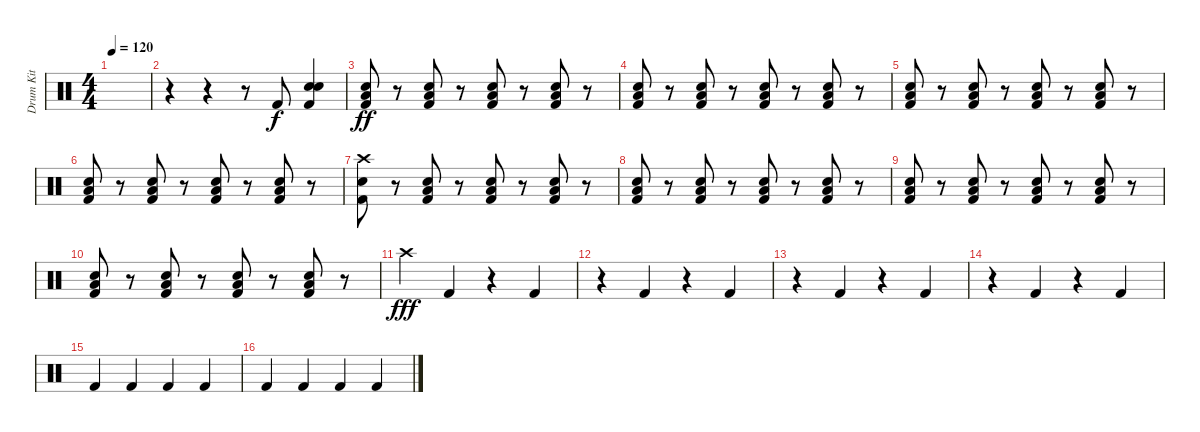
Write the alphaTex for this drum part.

\track ("Drum Kit" "Drum Kit") {instrument percussion}
\staff {score}
\articulation defaults
\ts (4 4)
\tempo 120
\clef neutral
\ks c
|
r.4 r.4 r.8 "Kick (hit) 2".8 ("Electric Snare (hit)" "Snare (hit) 2" "Kick (hit) 2").4 |
("Low Floor Tom (hit)" "Snare (hit) 2" "Kick (hit) 2").8{dy ff} r.8 ("Low Floor Tom (hit)" "Snare (hit) 2" "Kick (hit) 2").8 r.8 ("Low Floor Tom (hit)" "Snare (hit) 2" "Kick (hit) 2").8 r.8 ("Low Floor Tom (hit)" "Snare (hit) 2" "Kick (hit) 2").8 r.8 |
("Low Floor Tom (hit)" "Snare (hit) 2" "Kick (hit) 2").8 r.8 ("Low Floor Tom (hit)" "Snare (hit) 2" "Kick (hit) 2").8 r.8 ("Low Floor Tom (hit)" "Snare (hit) 2" "Kick (hit) 2").8 r.8 ("Low Floor Tom (hit)" "Snare (hit) 2" "Kick (hit) 2").8 r.8 |
("Low Floor Tom (hit)" "Snare (hit) 2" "Kick (hit) 2").8 r.8 ("Low Floor Tom (hit)" "Snare (hit) 2" "Kick (hit) 2").8 r.8 ("Low Floor Tom (hit)" "Snare (hit) 2" "Kick (hit) 2").8 r.8 ("Low Floor Tom (hit)" "Snare (hit) 2" "Kick (hit) 2").8 r.8 |
("Low Floor Tom (hit)" "Snare (hit) 2" "Kick (hit) 2").8 r.8 ("Low Floor Tom (hit)" "Snare (hit) 2" "Kick (hit) 2").8 r.8 ("Low Floor Tom (hit)" "Snare (hit) 2" "Kick (hit) 2").8 r.8 ("Low Floor Tom (hit)" "Snare (hit) 2" "Kick (hit) 2").8 r.8 |
("Crash high (hit)" "Snare (hit) 2" "Kick (hit) 2").8 r.8 ("Low Floor Tom (hit)" "Snare (hit) 2" "Kick (hit) 2").8 r.8 ("Low Floor Tom (hit)" "Snare (hit) 2" "Kick (hit) 2").8 r.8 ("Low Floor Tom (hit)" "Snare (hit) 2" "Kick (hit) 2").8 r.8 |
("Low Floor Tom (hit)" "Snare (hit) 2" "Kick (hit) 2").8 r.8 ("Low Floor Tom (hit)" "Snare (hit) 2" "Kick (hit) 2").8 r.8 ("Low Floor Tom (hit)" "Snare (hit) 2" "Kick (hit) 2").8 r.8 ("Low Floor Tom (hit)" "Snare (hit) 2" "Kick (hit) 2").8 r.8 |
("Low Floor Tom (hit)" "Snare (hit) 2" "Kick (hit) 2").8 r.8 ("Low Floor Tom (hit)" "Snare (hit) 2" "Kick (hit) 2").8 r.8 ("Low Floor Tom (hit)" "Snare (hit) 2" "Kick (hit) 2").8 r.8 ("Low Floor Tom (hit)" "Snare (hit) 2" "Kick (hit) 2").8 r.8 |
("Low Floor Tom (hit)" "Snare (hit) 2" "Kick (hit) 2").8 r.8 ("Low Floor Tom (hit)" "Snare (hit) 2" "Kick (hit) 2").8 r.8 ("Low Floor Tom (hit)" "Snare (hit) 2" "Kick (hit) 2").8 r.8 ("Low Floor Tom (hit)" "Snare (hit) 2" "Kick (hit) 2").8 r.8 |
"Crash high (hit)".4{dy fff} "Kick (hit) 2".4 r.4 "Kick (hit) 2".4 |
r.4 "Kick (hit) 2".4 r.4 "Kick (hit) 2".4 |
r.4 "Kick (hit) 2".4 r.4 "Kick (hit) 2".4 |
r.4 "Kick (hit) 2".4 r.4 "Kick (hit) 2".4 |
"Kick (hit) 2".4 "Kick (hit) 2".4 "Kick (hit) 2".4 "Kick (hit) 2".4 |
"Kick (hit) 2".4 "Kick (hit) 2".4 "Kick (hit) 2".4 "Kick (hit) 2".4
